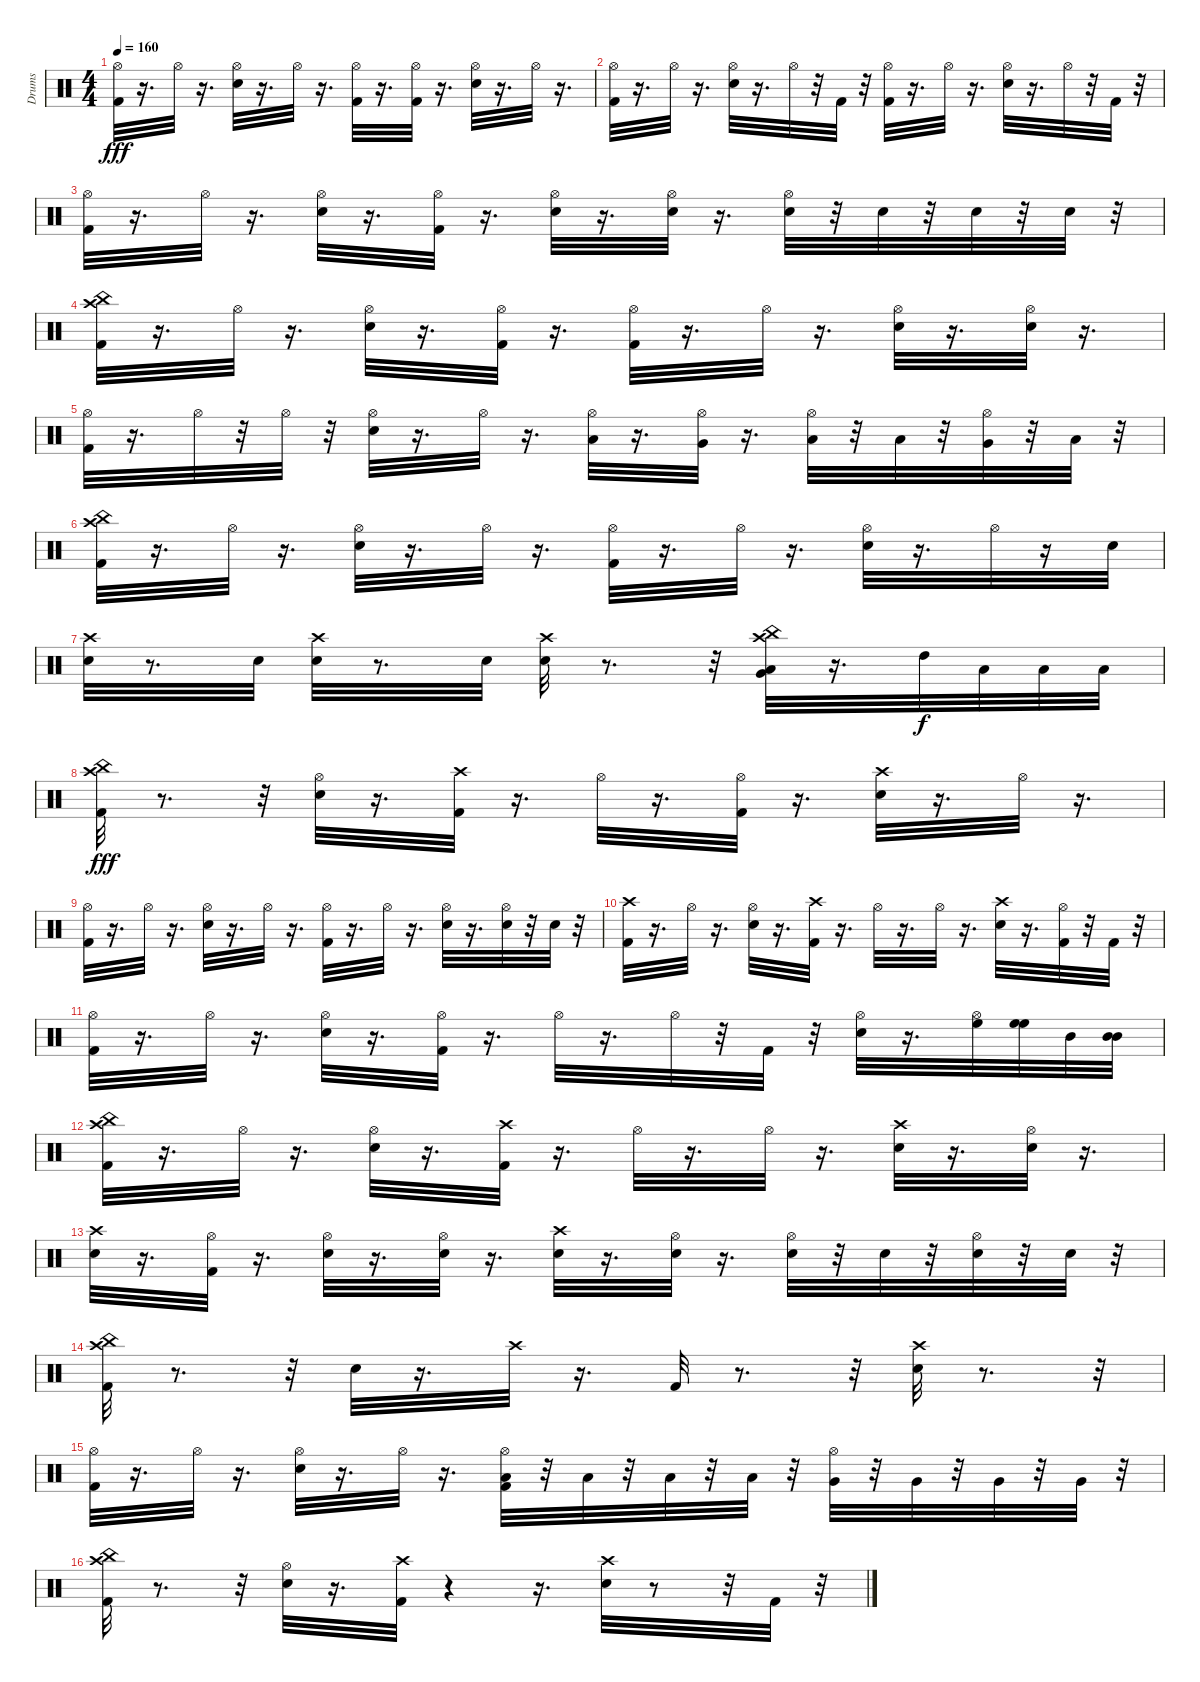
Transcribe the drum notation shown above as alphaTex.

\track ("Drums" "Drums") {instrument percussion}
\staff {score}
\articulation defaults
\ts (4 4)
\tempo 160
\clef neutral
\ks c
("Hi-Hat (open)" "Kick (hit) 2").32{dy fff} r.16{d} "Hi-Hat (open)".32 r.16{d} ("Hi-Hat (open)" "Snare (hit) 2").32 r.16{d} "Hi-Hat (open)".32 r.16{d} ("Hi-Hat (open)" "Kick (hit) 2").32 r.16{d} ("Hi-Hat (open)" "Kick (hit) 2").32 r.16{d} ("Hi-Hat (open)" "Snare (hit) 2").32 r.16{d} "Hi-Hat (open)".32 r.16{d} |
("Hi-Hat (open)" "Kick (hit) 2").32 r.16{d} "Hi-Hat (open)".32 r.16{d} ("Hi-Hat (open)" "Snare (hit) 2").32 r.16{d} "Hi-Hat (open)".32 r.32 "Kick (hit) 2".32 r.32 ("Hi-Hat (open)" "Kick (hit) 2").32 r.16{d} "Hi-Hat (open)".32 r.16{d} ("Hi-Hat (open)" "Snare (hit) 2").32 r.16{d} "Hi-Hat (open)".32 r.32 "Kick (hit) 2".32 r.32 |
("Hi-Hat (open)" "Kick (hit) 2").32 r.16{d} "Hi-Hat (open)".32 r.16{d} ("Hi-Hat (open)" "Snare (hit) 2").32 r.16{d} ("Hi-Hat (open)" "Kick (hit) 2").32 r.16{d} ("Hi-Hat (open)" "Snare (hit) 2").32 r.16{d} ("Hi-Hat (open)" "Snare (hit) 2").32 r.16{d} ("Hi-Hat (open)" "Snare (hit) 2").32 r.32 "Snare (hit) 2".32 r.32 "Snare (hit) 2".32 r.32 "Snare (hit) 2".32 r.32 |
("Kick (hit) 2" "China (hit)" "Crash high (hit)").32 r.16{d} "Hi-Hat (open)".32 r.16{d} ("Hi-Hat (open)" "Snare (hit) 2").32 r.16{d} ("Hi-Hat (open)" "Kick (hit) 2").32 r.16{d} ("Hi-Hat (open)" "Kick (hit) 2").32 r.16{d} "Hi-Hat (open)".32 r.16{d} ("Hi-Hat (open)" "Snare (hit) 2").32 r.16{d} ("Hi-Hat (open)" "Snare (hit) 2").32 r.16{d} |
("Hi-Hat (open)" "Kick (hit) 2").32 r.16{d} "Hi-Hat (open)".32 r.32 "Hi-Hat (open)".32 r.32 ("Hi-Hat (open)" "Snare (hit) 2").32 r.16{d} "Hi-Hat (open)".32 r.16{d} ("Hi-Hat (open)" "Low Floor Tom (hit)").32 r.16{d} ("Hi-Hat (open)" "Very Low Tom (hit)").32 r.16{d} ("Hi-Hat (open)" "Low Tom (hit)").32 r.32 "Low Tom (hit)".32 r.32 ("Hi-Hat (open)" "Very Low Tom (hit)").32 r.32 "Low Floor Tom (hit)".32 r.32 |
("China (hit)" "Crash high (hit)" "Kick (hit) 2").32 r.16{d} "Hi-Hat (open)".32 r.16{d} ("Hi-Hat (open)" "Snare (hit) 2").32 r.16{d} "Hi-Hat (open)".32 r.16{d} ("Hi-Hat (open)" "Kick (hit) 2").32 r.16{d} "Hi-Hat (open)".32 r.16{d} ("Hi-Hat (open)" "Snare (hit) 2").32 r.16{d} "Hi-Hat (open)".32 r.16 "Snare (hit) 2".32 |
("Crash high (hit)" "Snare (hit) 2").32 r.8{d} "Snare (hit) 2".32 ("Crash high (hit)" "Snare (hit) 2").32 r.8{d} "Snare (hit) 2".32 ("Snare (hit) 2" "Crash high (hit)").32 r.8{d} r.32 ("Crash high (hit)" "China (hit)" "Very Low Tom (hit)" "Low Floor Tom (hit)").32 r.16{d} "High Tom (hit)".32{dy f} "Low Tom (hit)".32 "Low Tom (hit)".32 "Low Tom (hit)".32 |
("China (hit)" "Crash high (hit)" "Kick (hit) 2").32{dy fff} r.8{d} r.32 ("Hi-Hat (open)" "Snare (hit) 2").32 r.16{d} ("Crash high (hit)" "Kick (hit) 2").32 r.16{d} "Hi-Hat (open)".32 r.16{d} ("Hi-Hat (open)" "Kick (hit) 2").32 r.16{d} ("Snare (hit) 2" "Crash high (hit)").32 r.16{d} "Hi-Hat (open)".32 r.16{d} |
("Hi-Hat (open)" "Kick (hit) 2").32 r.16{d} "Hi-Hat (open)".32 r.16{d} ("Hi-Hat (open)" "Snare (hit) 2").32 r.16{d} "Hi-Hat (open)".32 r.16{d} ("Hi-Hat (open)" "Kick (hit) 2").32 r.16{d} "Hi-Hat (open)".32 r.16{d} ("Hi-Hat (open)" "Snare (hit) 2").32 r.16{d} ("Snare (hit) 2" "Hi-Hat (open)").32 r.32 "Snare (hit) 2".32 r.32 |
("Kick (hit) 2" "Crash high (hit)").32 r.16{d} "Hi-Hat (open)".32 r.16{d} ("Hi-Hat (open)" "Snare (hit) 2").32 r.16{d} ("Kick (hit) 2" "Crash high (hit)").32 r.16{d} "Hi-Hat (open)".32 r.16{d} "Hi-Hat (open)".32 r.16{d} ("Snare (hit) 2" "Crash high (hit)").32 r.16{d} ("Hi-Hat (open)" "Kick (hit) 2").32 r.32 "Kick (hit) 2".32 r.32 |
("Hi-Hat (open)" "Kick (hit) 2").32 r.16{d} "Hi-Hat (open)".32 r.16{d} ("Hi-Hat (open)" "Snare (hit) 2").32 r.16{d} ("Hi-Hat (open)" "Kick (hit) 2").32 r.16{d} "Hi-Hat (open)".32 r.16{d} "Hi-Hat (open)".32 r.32 "Kick (hit) 2".32 r.32 ("Hi-Hat (open)" "Snare (hit) 2").32 r.16{d} ("Hi-Hat (open)" "High Floor Tom (hit)").32 ("High Floor Tom (hit)" "High Floor Tom (hit)").32 "Mid Tom (hit)".32 ("Mid Tom (hit)" "Mid Tom (hit)").32 |
("China (hit)" "Crash high (hit)" "Kick (hit) 2").32 r.16{d} "Hi-Hat (open)".32 r.16{d} ("Hi-Hat (open)" "Snare (hit) 2").32 r.16{d} ("Crash high (hit)" "Kick (hit) 2").32 r.16{d} "Hi-Hat (open)".32 r.16{d} "Hi-Hat (open)".32 r.16{d} ("Crash high (hit)" "Snare (hit) 2").32 r.16{d} ("Hi-Hat (open)" "Snare (hit) 2").32 r.16{d} |
("Crash high (hit)" "Snare (hit) 2").32 r.16{d} ("Hi-Hat (open)" "Kick (hit) 2").32 r.16{d} ("Hi-Hat (open)" "Snare (hit) 2").32 r.16{d} ("Hi-Hat (open)" "Snare (hit) 2").32 r.16{d} ("Crash high (hit)" "Snare (hit) 2").32 r.16{d} ("Hi-Hat (open)" "Snare (hit) 2").32 r.16{d} ("Hi-Hat (open)" "Snare (hit) 2").32 r.32 "Snare (hit) 2".32 r.32 ("Hi-Hat (open)" "Snare (hit) 2").32 r.32 "Snare (hit) 2".32 r.32 |
("China (hit)" "Crash high (hit)" "Kick (hit) 2").32 r.8{d} r.32 "Snare (hit) 2".32 r.16{d} "Crash high (hit)".32 r.16{d} "Kick (hit) 2".32 r.8{d} r.32 ("Crash high (hit)" "Snare (hit) 2").32 r.8{d} r.32 |
("Hi-Hat (open)" "Kick (hit) 2").32 r.16{d} "Hi-Hat (open)".32 r.16{d} ("Hi-Hat (open)" "Snare (hit) 2").32 r.16{d} "Hi-Hat (open)".32 r.16{d} ("Hi-Hat (open)" "Kick (hit) 2" "Low Tom (hit)").32 r.32 "Low Tom (hit)".32 r.32 "Low Tom (hit)".32 r.32 "Low Tom (hit)".32 r.32 ("Hi-Hat (open)" "Very Low Tom (hit)").32 r.32 "Very Low Tom (hit)".32 r.32 "Very Low Tom (hit)".32 r.32 "Very Low Tom (hit)".32 r.32 |
("China (hit)" "Crash high (hit)" "Kick (hit) 2").32 r.8{d} r.32 ("Hi-Hat (open)" "Snare (hit) 2").32 r.16{d} ("Crash high (hit)" "Kick (hit) 2").32 r.4 r.16{d} ("Crash high (hit)" "Snare (hit) 2").32 r.8 r.32 "Kick (hit) 2".32 r.32
